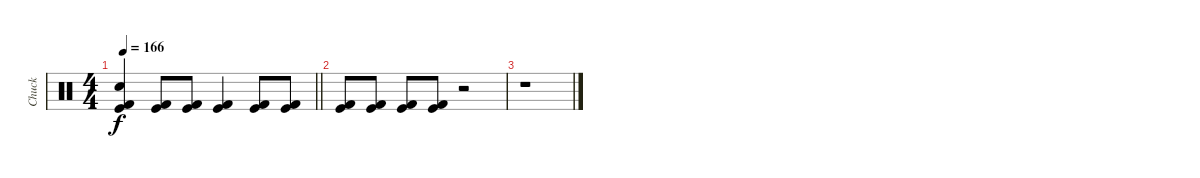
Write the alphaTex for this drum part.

\track ("Chuck" "Chuck") {instrument percussion}
\staff {score}
\articulation defaults
\ts (4 4)
\tempo 166
\clef neutral
\barLineRight lightlight
\ks c
("Kick (hit)" "Kick (hit) 2" "Electric Snare (hit)").4{dy f} ("Kick (hit)" "Kick (hit) 2").8 ("Kick (hit)" "Kick (hit) 2").8 ("Kick (hit)" "Kick (hit) 2").4 ("Kick (hit)" "Kick (hit) 2").8 ("Kick (hit)" "Kick (hit) 2").8 |
("Kick (hit)" "Kick (hit) 2").8 ("Kick (hit)" "Kick (hit) 2").8 ("Kick (hit)" "Kick (hit) 2").8 ("Kick (hit)" "Kick (hit) 2").8 r.2 |
r.1
